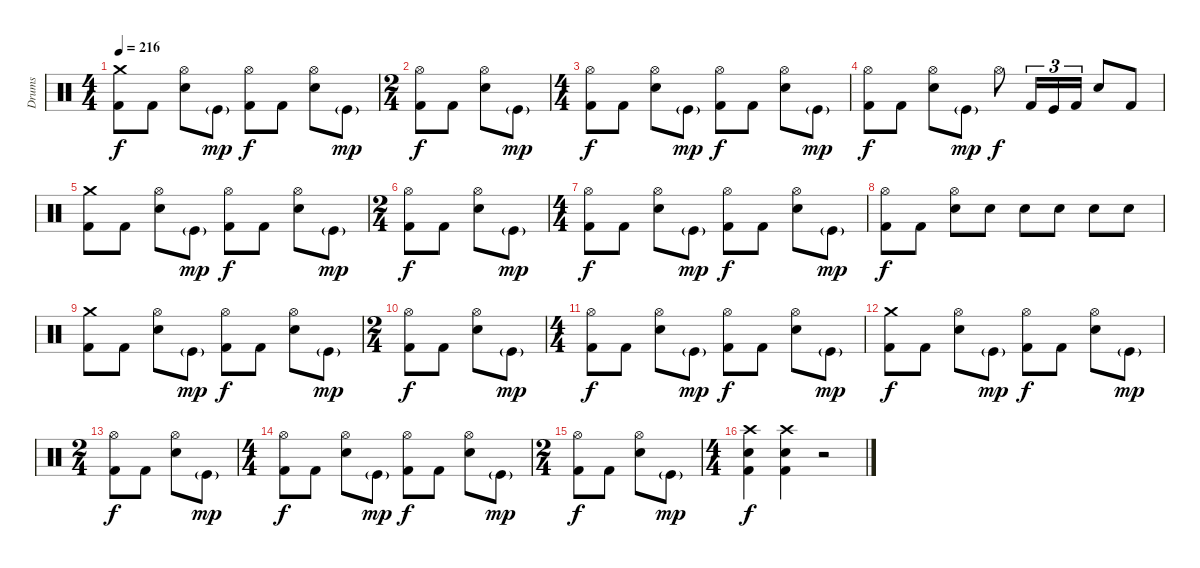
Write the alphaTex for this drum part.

\track ("Drums" "Drums") {instrument percussion}
\staff {score}
\articulation defaults
\ts (4 4)
\tempo 216
\clef neutral
\ks c
("Crash medium (hit)" "Kick (hit) 2").8{dy f} "Kick (hit) 2".8 ("Hi-Hat (open)" "Snare (hit) 2").8 "Kick (hit)"{g}.8{dy mp} ("Hi-Hat (open)" "Kick (hit) 2").8{dy f} "Kick (hit) 2".8 ("Hi-Hat (open)" "Snare (hit) 2").8 "Kick (hit)"{g}.8{dy mp} |
\ts (2 4)
("Hi-Hat (open)" "Kick (hit) 2").8{dy f} "Kick (hit) 2".8 ("Hi-Hat (open)" "Snare (hit) 2").8 "Kick (hit)"{g}.8{dy mp} |
\ts (4 4)
("Hi-Hat (open)" "Kick (hit) 2").8{dy f} "Kick (hit) 2".8 ("Hi-Hat (open)" "Snare (hit) 2").8 "Kick (hit)"{g}.8{dy mp} ("Hi-Hat (open)" "Kick (hit) 2").8{dy f} "Kick (hit) 2".8 ("Hi-Hat (open)" "Snare (hit) 2").8 "Kick (hit)"{g}.8{dy mp} |
("Hi-Hat (open)" "Kick (hit) 2").8{dy f} "Kick (hit) 2".8 ("Hi-Hat (open)" "Snare (hit) 2").8 "Kick (hit)"{g}.8{dy mp} "Hi-Hat (open)".8{dy f} "Kick (hit) 2".16{tu (3 2)} "Kick (hit)".16{tu (3 2)} "Kick (hit) 2".16{tu (3 2)} "Snare (hit) 2".8 "Kick (hit) 2".8 |
("Crash medium (hit)" "Kick (hit) 2").8 "Kick (hit) 2".8 ("Hi-Hat (open)" "Snare (hit) 2").8 "Kick (hit)"{g}.8{dy mp} ("Hi-Hat (open)" "Kick (hit) 2").8{dy f} "Kick (hit) 2".8 ("Hi-Hat (open)" "Snare (hit) 2").8 "Kick (hit)"{g}.8{dy mp} |
\ts (2 4)
("Hi-Hat (open)" "Kick (hit) 2").8{dy f} "Kick (hit) 2".8 ("Hi-Hat (open)" "Snare (hit) 2").8 "Kick (hit)"{g}.8{dy mp} |
\ts (4 4)
("Hi-Hat (open)" "Kick (hit) 2").8{dy f} "Kick (hit) 2".8 ("Hi-Hat (open)" "Snare (hit) 2").8 "Kick (hit)"{g}.8{dy mp} ("Hi-Hat (open)" "Kick (hit) 2").8{dy f} "Kick (hit) 2".8 ("Hi-Hat (open)" "Snare (hit) 2").8 "Kick (hit)"{g}.8{dy mp} |
("Hi-Hat (open)" "Kick (hit) 2").8{dy f} "Kick (hit) 2".8 ("Hi-Hat (open)" "Electric Snare (hit)").8 "Electric Snare (hit)".8 "Electric Snare (hit)".8 "Electric Snare (hit)".8 "Electric Snare (hit)".8 "Electric Snare (hit)".8 |
("Crash medium (hit)" "Kick (hit) 2").8 "Kick (hit) 2".8 ("Hi-Hat (open)" "Snare (hit) 2").8 "Kick (hit)"{g}.8{dy mp} ("Hi-Hat (open)" "Kick (hit) 2").8{dy f} "Kick (hit) 2".8 ("Hi-Hat (open)" "Snare (hit) 2").8 "Kick (hit)"{g}.8{dy mp} |
\ts (2 4)
("Hi-Hat (open)" "Kick (hit) 2").8{dy f} "Kick (hit) 2".8 ("Hi-Hat (open)" "Snare (hit) 2").8 "Kick (hit)"{g}.8{dy mp} |
\ts (4 4)
("Hi-Hat (open)" "Kick (hit) 2").8{dy f} "Kick (hit) 2".8 ("Hi-Hat (open)" "Snare (hit) 2").8 "Kick (hit)"{g}.8{dy mp} ("Hi-Hat (open)" "Kick (hit) 2").8{dy f} "Kick (hit) 2".8 ("Hi-Hat (open)" "Snare (hit) 2").8 "Kick (hit)"{g}.8{dy mp} |
("Crash medium (hit)" "Kick (hit) 2").8{dy f} "Kick (hit) 2".8 ("Hi-Hat (open)" "Snare (hit) 2").8 "Kick (hit)"{g}.8{dy mp} ("Hi-Hat (open)" "Kick (hit) 2").8{dy f} "Kick (hit) 2".8 ("Hi-Hat (open)" "Snare (hit) 2").8 "Kick (hit)"{g}.8{dy mp} |
\ts (2 4)
("Hi-Hat (open)" "Kick (hit) 2").8{dy f} "Kick (hit) 2".8 ("Hi-Hat (open)" "Snare (hit) 2").8 "Kick (hit)"{g}.8{dy mp} |
\ts (4 4)
("Hi-Hat (open)" "Kick (hit) 2").8{dy f} "Kick (hit) 2".8 ("Hi-Hat (open)" "Snare (hit) 2").8 "Kick (hit)"{g}.8{dy mp} ("Hi-Hat (open)" "Kick (hit) 2").8{dy f} "Kick (hit) 2".8 ("Hi-Hat (open)" "Snare (hit) 2").8 "Kick (hit)"{g}.8{dy mp} |
\ts (2 4)
("Hi-Hat (open)" "Kick (hit) 2").8{dy f} "Kick (hit) 2".8 ("Hi-Hat (open)" "Snare (hit) 2").8 "Kick (hit)"{g}.8{dy mp} |
\ts (4 4)
("Crash high (hit)" "Snare (hit) 2" "Kick (hit) 2").4{dy f} ("Crash high (hit)" "Snare (hit) 2" "Kick (hit) 2").4 r.2
